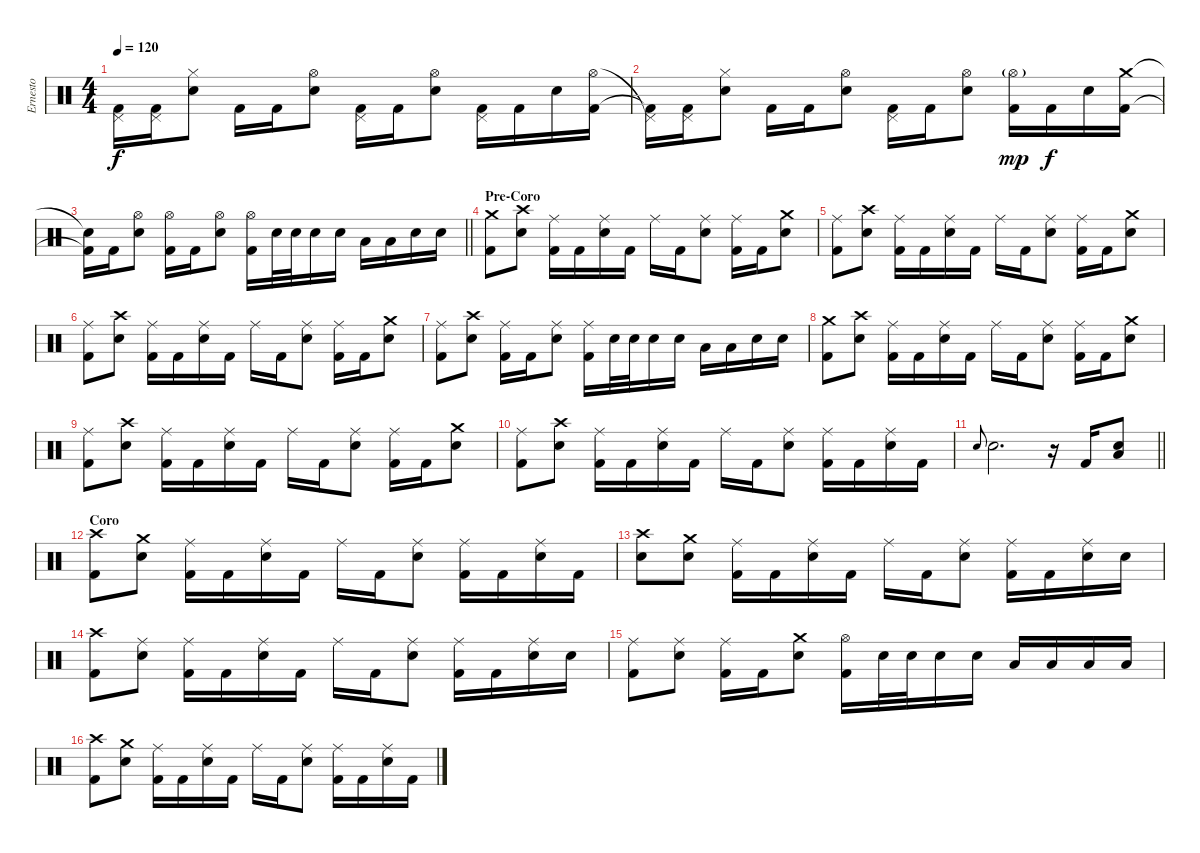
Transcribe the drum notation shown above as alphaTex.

\track ("Ernesto" "Ernesto") {instrument percussion}
\staff
\articulation defaults
\ts (4 4)
\tempo 120
\clef neutral
\ks c
("Pedal Hi-Hat (hit)"{t} "Kick (hit) 2"{t}).16{dy f} ("Pedal Hi-Hat (hit)" "Kick (hit) 2").16 ("Hi-Hat (closed)" "Electric Snare (hit)").8 "Kick (hit) 2".16 "Kick (hit) 2".16 ("Hi-Hat (open)" "Electric Snare (hit)").8 ("Pedal Hi-Hat (hit)" "Kick (hit) 2").16 "Kick (hit) 2".16 ("Hi-Hat (open)" "Electric Snare (hit)").8 ("Pedal Hi-Hat (hit)" "Kick (hit) 2").16 "Kick (hit) 2".16 "Electric Snare (hit)".16 ("Hi-Hat (open)" "Kick (hit) 2").16 |
("Pedal Hi-Hat (hit)"{t} "Kick (hit) 2"{t}).16 ("Pedal Hi-Hat (hit)" "Kick (hit) 2").16 ("Hi-Hat (closed)" "Electric Snare (hit)").8 "Kick (hit) 2".16 "Kick (hit) 2".16 ("Hi-Hat (open)" "Electric Snare (hit)").8 ("Pedal Hi-Hat (hit)" "Kick (hit) 2").16 "Kick (hit) 2".16 ("Hi-Hat (open)" "Electric Snare (hit)").8 ("Hi-Hat (open)"{g} "Kick (hit) 2").16{dy mp} "Kick (hit) 2".16{dy f} "Electric Snare (hit)".16 ("Crash medium (hit)" "Kick (hit) 2").16 |
\barLineRight lightlight
("Snare (hit)"{t} "Kick (hit) 2"{t}).16 "Kick (hit) 2".16 ("Hi-Hat (open)" "Electric Snare (hit)").8 ("Hi-Hat (open)" "Kick (hit) 2").16 "Kick (hit) 2".16 ("Hi-Hat (open)" "Electric Snare (hit)").8 ("Hi-Hat (open)" "Kick (hit) 2").16 "Electric Snare (hit)".32 "Electric Snare (hit)".32 "Electric Snare (hit)".16 "Electric Snare (hit)".16 "Low Tom (hit)".16 "Low Tom (hit)".16 "Electric Snare (hit)".16 "Electric Snare (hit)".16 |
\section ("" "Pre-Coro")
("Crash medium (hit)" "Kick (hit) 2").8 ("Crash high (hit)" "Electric Snare (hit)").8 ("Ride (middle)" "Kick (hit) 2").16 "Kick (hit) 2".16 ("Ride (middle)" "Electric Snare (hit)").16 "Kick (hit) 2".16 "Ride (middle)".16 "Kick (hit) 2".16 ("Ride (middle)" "Electric Snare (hit)").8 ("Ride (middle)" "Kick (hit) 2").16 "Kick (hit) 2".16 ("Crash medium (hit)" "Electric Snare (hit)").8 |
("Ride (middle)" "Kick (hit) 2").8 ("Crash high (hit)" "Electric Snare (hit)").8 ("Ride (middle)" "Kick (hit) 2").16 "Kick (hit) 2".16 ("Ride (middle)" "Electric Snare (hit)").16 "Kick (hit) 2".16 "Ride (middle)".16 "Kick (hit) 2".16 ("Ride (middle)" "Electric Snare (hit)").8 ("Ride (middle)" "Kick (hit) 2").16 "Kick (hit) 2".16 ("Crash medium (hit)" "Electric Snare (hit)").8 |
("Ride (middle)" "Kick (hit) 2").8 ("Crash high (hit)" "Electric Snare (hit)").8 ("Ride (middle)" "Kick (hit) 2").16 "Kick (hit) 2".16 ("Ride (middle)" "Electric Snare (hit)").16 "Kick (hit) 2".16 "Ride (middle)".16 "Kick (hit) 2".16 ("Ride (middle)" "Electric Snare (hit)").8 ("Ride (middle)" "Kick (hit) 2").16 "Kick (hit) 2".16 ("Crash medium (hit)" "Electric Snare (hit)").8 |
("Ride (middle)" "Kick (hit) 2").8 ("Crash high (hit)" "Electric Snare (hit)").8 ("Ride (middle)" "Kick (hit) 2").16 "Kick (hit) 2".16 ("Ride (middle)" "Electric Snare (hit)").8 ("Ride (middle)" "Kick (hit) 2").16 "Electric Snare (hit)".32 "Electric Snare (hit)".32 "Electric Snare (hit)".16 "Electric Snare (hit)".16 "Low Tom (hit)".16 "Low Tom (hit)".16 "Electric Snare (hit)".16 "Electric Snare (hit)".16 |
("Crash medium (hit)" "Kick (hit) 2").8 ("Crash high (hit)" "Electric Snare (hit)").8 ("Ride (middle)" "Kick (hit) 2").16 "Kick (hit) 2".16 ("Ride (middle)" "Electric Snare (hit)").16 "Kick (hit) 2".16 "Ride (middle)".16 "Kick (hit) 2".16 ("Ride (middle)" "Electric Snare (hit)").8 ("Ride (middle)" "Kick (hit) 2").16 "Kick (hit) 2".16 ("Crash medium (hit)" "Electric Snare (hit)").8 |
("Ride (middle)" "Kick (hit) 2").8 ("Crash high (hit)" "Electric Snare (hit)").8 ("Ride (middle)" "Kick (hit) 2").16 "Kick (hit) 2".16 ("Ride (middle)" "Electric Snare (hit)").16 "Kick (hit) 2".16 "Ride (middle)".16 "Kick (hit) 2".16 ("Ride (middle)" "Electric Snare (hit)").8 ("Ride (middle)" "Kick (hit) 2").16 "Kick (hit) 2".16 ("Crash medium (hit)" "Electric Snare (hit)").8 |
("Ride (middle)" "Kick (hit) 2").8 ("Crash high (hit)" "Electric Snare (hit)").8 ("Ride (middle)" "Kick (hit) 2").16 "Kick (hit) 2".16 ("Ride (middle)" "Electric Snare (hit)").16 "Kick (hit) 2".16 "Ride (middle)".16 "Kick (hit) 2".16 ("Ride (middle)" "Electric Snare (hit)").8 ("Ride (middle)" "Kick (hit) 2").16 "Kick (hit) 2".16 ("Ride (middle)" "Electric Snare (hit)").16 "Kick (hit) 2".16 |
\barLineRight lightlight "Electric Snare (hit)".8{gr onbeat} "Electric Snare (hit)".2{d}
r.16 "Kick (hit) 2".16 ("Electric Snare (hit)" "Low Floor Tom (hit)").8 |
\section ("" "Coro")
("Crash high (hit)" "Kick (hit) 2").8 ("Crash medium (hit)" "Electric Snare (hit)").8 ("Ride (middle)" "Kick (hit) 2").16 "Kick (hit) 2".16 ("Ride (middle)" "Electric Snare (hit)").16 "Kick (hit) 2".16 "Ride (middle)".16 "Kick (hit) 2".16 ("Ride (middle)" "Electric Snare (hit)").8 ("Ride (middle)" "Kick (hit) 2").16 "Kick (hit) 2".16 ("Ride (middle)" "Electric Snare (hit)").16 "Kick (hit) 2".16 |
("Crash high (hit)" "Electric Snare (hit)").8 ("Crash medium (hit)" "Electric Snare (hit)").8 ("Ride (middle)" "Kick (hit) 2").16 "Kick (hit) 2".16 ("Ride (middle)" "Electric Snare (hit)").16 "Kick (hit) 2".16 "Ride (middle)".16 "Kick (hit) 2".16 ("Ride (middle)" "Electric Snare (hit)").8 ("Ride (middle)" "Kick (hit) 2").16 "Kick (hit) 2".16 ("Ride (middle)" "Electric Snare (hit)").16 "Electric Snare (hit)".16 |
("Crash high (hit)" "Kick (hit) 2").8 ("Ride (middle)" "Electric Snare (hit)").8 ("Ride (middle)" "Kick (hit) 2").16 "Kick (hit) 2".16 ("Ride (middle)" "Electric Snare (hit)").16 "Kick (hit) 2".16 "Ride (middle)".16 "Kick (hit) 2".16 ("Ride (middle)" "Electric Snare (hit)").8 ("Ride (middle)" "Kick (hit) 2").16 "Kick (hit) 2".16 ("Ride (middle)" "Electric Snare (hit)").16 "Electric Snare (hit)".16 |
("Ride (middle)" "Kick (hit) 2").8 ("Ride (middle)" "Electric Snare (hit)").8 ("Ride (middle)" "Kick (hit) 2").16 "Kick (hit) 2".16 ("Crash medium (hit)" "Electric Snare (hit)").8 ("Hi-Hat (open)" "Kick (hit) 2").16 "Electric Snare (hit)".32 "Electric Snare (hit)".32 "Electric Snare (hit)".16 "Electric Snare (hit)".16 "Low Tom (hit)".16 "Low Tom (hit)".16 "Low Floor Tom (hit)".16 "Low Floor Tom (hit)".16 |
("Crash high (hit)" "Kick (hit) 2").8 ("Crash medium (hit)" "Electric Snare (hit)").8 ("Ride (middle)" "Kick (hit) 2").16 "Kick (hit) 2".16 ("Ride (middle)" "Electric Snare (hit)").16 "Kick (hit) 2".16 "Ride (middle)".16 "Kick (hit) 2".16 ("Ride (middle)" "Electric Snare (hit)").8 ("Ride (middle)" "Kick (hit) 2").16 "Kick (hit) 2".16 ("Ride (middle)" "Electric Snare (hit)").16 "Kick (hit) 2".16
